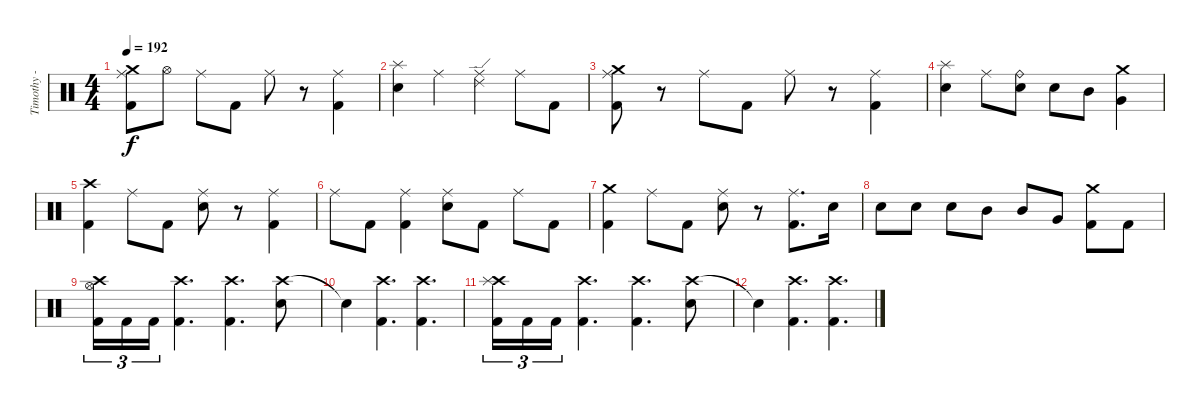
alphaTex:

\track ("Timothy - Drums" "Timothy - ") {instrument percussion}
\staff {score}
\articulation defaults
\ts (4 4)
\tempo 192
\clef neutral
\ks c
("Crash medium (hit)" "Ride (middle)" "Kick (hit) 2").8{dy f} "Hi-Hat (open)".8 "Ride (middle)".8 "Kick (hit) 2".8 "Ride (middle)".8 r.8 ("Ride (middle)" "Kick (hit) 2").4 |
("Splash (hit)" "Electric Snare (hit)").4 "Ride (middle)".4 ("Ride (edge) 2" "Ride (middle)").4 "Ride (middle)".8 "Kick (hit) 2".8 |
("Crash medium (hit)" "Ride (middle)" "Kick (hit) 2").8 r.8 "Ride (middle)".8 "Kick (hit) 2".8 "Ride (middle)".8 r.8 ("Ride (middle)" "Kick (hit) 2").4 |
("Splash (hit)" "Electric Snare (hit)").4 "Ride (middle)".8 ("Ride (bell)" "Electric Snare (hit)").8 "Electric Snare (hit)".8 "Mid Tom (hit)".8 ("Crash medium (hit)" "Very Low Tom (hit)").4 |
("Crash high (hit)" "Kick (hit) 2").4 "Ride (middle)".8 "Kick (hit) 2".8 ("Ride (middle)" "Electric Snare (hit)").8 r.8 ("Ride (middle)" "Kick (hit) 2").4 |
"Ride (middle)".8 "Kick (hit) 2".8 ("Ride (middle)" "Kick (hit) 2").4 ("Ride (middle)" "Electric Snare (hit)").8 "Kick (hit) 2".8 "Ride (middle)".8 "Kick (hit) 2".8 |
("Crash medium (hit)" "Kick (hit) 2").4 "Ride (middle)".8 "Kick (hit) 2".8 ("Ride (middle)" "Electric Snare (hit)").8 r.8 ("Ride (middle)" "Kick (hit) 2").8{d} "Electric Snare (hit)".16 |
"Electric Snare (hit)".8 "Electric Snare (hit)".8 "Electric Snare (hit)".8 "Mid Tom (hit)".8 "Mid Tom (hit)".8 "Very Low Tom (hit)".8 ("Crash medium (hit)" "Kick (hit) 2").8 "Kick (hit) 2".8 |
("Crash high (hit)" "Hi-Hat (open)" "Kick (hit) 2").16{tu (3 2)} "Kick (hit) 2".16{tu (3 2)} "Kick (hit) 2".16{tu (3 2)} ("Crash high (hit)" "Kick (hit) 2").4{d} ("Crash high (hit)" "Kick (hit) 2").4{d} ("Crash high (hit)" "Electric Snare (hit)").8 |
"Snare (hit)"{t}.4 ("Crash high (hit)" "Kick (hit) 2").4{d} ("Crash high (hit)" "Kick (hit) 2").4{d} |
("Crash high (hit)" "Splash (hit)" "Kick (hit) 2").16{tu (3 2)} "Kick (hit) 2".16{tu (3 2)} "Kick (hit) 2".16{tu (3 2)} ("Crash high (hit)" "Kick (hit) 2").4{d} ("Crash high (hit)" "Kick (hit) 2").4{d} ("Crash high (hit)" "Electric Snare (hit)").8 |
"Snare (hit)"{t}.4 ("Crash high (hit)" "Kick (hit) 2").4{d} ("Crash high (hit)" "Kick (hit) 2").4{d}
